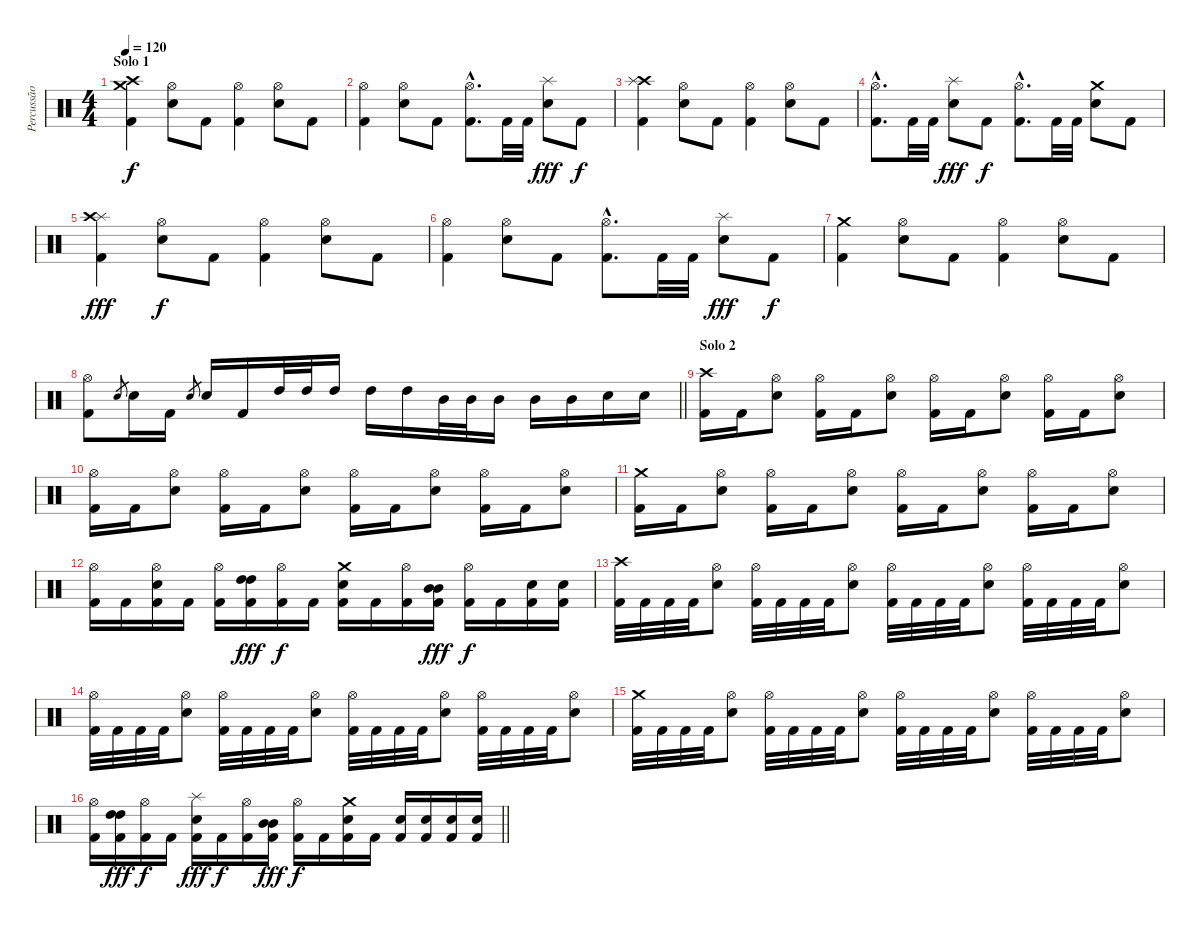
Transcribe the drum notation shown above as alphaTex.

\track ("Percussão" "Percussão") {instrument percussion}
\staff {score}
\articulation defaults
\ts (4 4)
\section ("" "Solo 1")
\tempo 120
\clef neutral
\ks c
("Crash medium (hit)" "Crash high (hit)" "Kick (hit) 2").4{dy f} ("Hi-Hat (open)" "Electric Snare (hit)").8 "Kick (hit) 2".8 ("Hi-Hat (open)" "Kick (hit) 2").4 ("Hi-Hat (open)" "Electric Snare (hit)").8 "Kick (hit) 2".8 |
("Hi-Hat (open)" "Kick (hit) 2").4 ("Hi-Hat (open)" "Electric Snare (hit)").8 "Kick (hit) 2".8 ("Hi-Hat (open)"{hac} "Kick (hit) 2"{hac}).8{d} "Kick (hit) 2".32 "Kick (hit) 2".32 ("Splash (hit)" "Electric Snare (hit)").8{dy fff} "Kick (hit) 2".8{dy f} |
("Crash high (hit)" "Splash (hit)" "Kick (hit) 2").4 ("Hi-Hat (open)" "Electric Snare (hit)").8 "Kick (hit) 2".8 ("Hi-Hat (open)" "Kick (hit) 2").4 ("Hi-Hat (open)" "Electric Snare (hit)").8 "Kick (hit) 2".8 |
("Hi-Hat (open)"{hac} "Kick (hit) 2"{hac}).8{d} "Kick (hit) 2".32 "Kick (hit) 2".32 ("Splash (hit)" "Electric Snare (hit)").8{dy fff} "Kick (hit) 2".8{dy f} ("Hi-Hat (open)"{hac} "Kick (hit) 2"{hac}).8{d} "Kick (hit) 2".32 "Kick (hit) 2".32 ("Crash medium (hit)" "Electric Snare (hit)").8 "Kick (hit) 2".8 |
("Splash (hit)" "Crash high (hit)" "Kick (hit) 2").4{dy fff} ("Hi-Hat (open)" "Electric Snare (hit)").8{dy f} "Kick (hit) 2".8 ("Hi-Hat (open)" "Kick (hit) 2").4 ("Hi-Hat (open)" "Electric Snare (hit)").8 "Kick (hit) 2".8 |
("Hi-Hat (open)" "Kick (hit) 2").4 ("Hi-Hat (open)" "Electric Snare (hit)").8 "Kick (hit) 2".8 ("Hi-Hat (open)"{hac} "Kick (hit) 2"{hac}).8{d} "Kick (hit) 2".32 "Kick (hit) 2".32 ("Splash (hit)" "Electric Snare (hit)").8{dy fff} "Kick (hit) 2".8{dy f} |
("Crash medium (hit)" "Kick (hit) 2").4 ("Hi-Hat (open)" "Electric Snare (hit)").8 "Kick (hit) 2".8 ("Hi-Hat (open)" "Kick (hit) 2").4 ("Hi-Hat (open)" "Electric Snare (hit)").8 "Kick (hit) 2".8 |
\barLineRight lightlight
("Hi-Hat (open)" "Kick (hit) 2").8 "Electric Snare (hit)".8{gr} "Electric Snare (hit)".16 "Kick (hit) 2".16 "Electric Snare (hit)".8{gr} "Electric Snare (hit)".16 "Kick (hit) 2".16 "High Tom (hit)".32 "High Tom (hit)".32 "High Tom (hit)".16 "High Tom (hit)".16 "High Tom (hit)".16 "Mid Tom (hit)".32 "Mid Tom (hit)".32 "Mid Tom (hit)".16 "Mid Tom (hit)".16 "Mid Tom (hit)".16 "Electric Snare (hit)".16 "Electric Snare (hit)".16 |
\section ("" "Solo 2")
("Crash high (hit)" "Kick (hit) 2").16 "Kick (hit) 2".16 ("Hi-Hat (open)" "Electric Snare (hit)").8 ("Hi-Hat (open)" "Kick (hit) 2").16 "Kick (hit) 2".16 ("Hi-Hat (open)" "Electric Snare (hit)").8 ("Hi-Hat (open)" "Kick (hit) 2").16 "Kick (hit) 2".16 ("Hi-Hat (open)" "Electric Snare (hit)").8 ("Hi-Hat (open)" "Kick (hit) 2").16 "Kick (hit) 2".16 ("Hi-Hat (open)" "Electric Snare (hit)").8 |
("Hi-Hat (open)" "Kick (hit) 2").16 "Kick (hit) 2".16 ("Hi-Hat (open)" "Electric Snare (hit)").8 ("Hi-Hat (open)" "Kick (hit) 2").16 "Kick (hit) 2".16 ("Hi-Hat (open)" "Electric Snare (hit)").8 ("Hi-Hat (open)" "Kick (hit) 2").16 "Kick (hit) 2".16 ("Hi-Hat (open)" "Electric Snare (hit)").8 ("Hi-Hat (open)" "Kick (hit) 2").16 "Kick (hit) 2".16 ("Hi-Hat (open)" "Electric Snare (hit)").8 |
("Crash medium (hit)" "Kick (hit) 2").16 "Kick (hit) 2".16 ("Hi-Hat (open)" "Electric Snare (hit)").8 ("Hi-Hat (open)" "Kick (hit) 2").16 "Kick (hit) 2".16 ("Hi-Hat (open)" "Electric Snare (hit)").8 ("Hi-Hat (open)" "Kick (hit) 2").16 "Kick (hit) 2".16 ("Hi-Hat (open)" "Electric Snare (hit)").8 ("Hi-Hat (open)" "Kick (hit) 2").16 "Kick (hit) 2".16 ("Hi-Hat (open)" "Electric Snare (hit)").8 |
("Hi-Hat (open)" "Kick (hit) 2").16 "Kick (hit) 2".16 ("Hi-Hat (open)" "Electric Snare (hit)" "Kick (hit) 2").16 "Kick (hit) 2".16 ("Hi-Hat (open)" "Kick (hit) 2").16 ("High Tom (hit)" "High Tom (hit)" "Kick (hit) 2").16{dy fff} ("Hi-Hat (open)" "Kick (hit) 2").16{dy f} "Kick (hit) 2".16 ("Crash medium (hit)" "Electric Snare (hit)" "Kick (hit) 2").16 "Kick (hit) 2".16 ("Hi-Hat (open)" "Kick (hit) 2").16 ("Mid Tom (hit)" "Mid Tom (hit)" "Kick (hit) 2").16{dy fff} ("Hi-Hat (open)" "Kick (hit) 2").16{dy f} "Kick (hit) 2".16 ("Electric Snare (hit)" "Kick (hit) 2").16 ("Electric Snare (hit)" "Kick (hit) 2").16 |
("Crash high (hit)" "Kick (hit) 2").32 "Kick (hit) 2".32 "Kick (hit) 2".32 "Kick (hit) 2".32 ("Hi-Hat (open)" "Electric Snare (hit)").8 ("Hi-Hat (open)" "Kick (hit) 2").32 "Kick (hit) 2".32 "Kick (hit) 2".32 "Kick (hit) 2".32 ("Hi-Hat (open)" "Electric Snare (hit)").8 ("Hi-Hat (open)" "Kick (hit) 2").32 "Kick (hit) 2".32 "Kick (hit) 2".32 "Kick (hit) 2".32 ("Hi-Hat (open)" "Electric Snare (hit)").8 ("Hi-Hat (open)" "Kick (hit) 2").32 "Kick (hit) 2".32 "Kick (hit) 2".32 "Kick (hit) 2".32 ("Hi-Hat (open)" "Electric Snare (hit)").8 |
("Hi-Hat (open)" "Kick (hit) 2").32 "Kick (hit) 2".32 "Kick (hit) 2".32 "Kick (hit) 2".32 ("Hi-Hat (open)" "Electric Snare (hit)").8 ("Hi-Hat (open)" "Kick (hit) 2").32 "Kick (hit) 2".32 "Kick (hit) 2".32 "Kick (hit) 2".32 ("Hi-Hat (open)" "Electric Snare (hit)").8 ("Hi-Hat (open)" "Kick (hit) 2").32 "Kick (hit) 2".32 "Kick (hit) 2".32 "Kick (hit) 2".32 ("Hi-Hat (open)" "Electric Snare (hit)").8 ("Hi-Hat (open)" "Kick (hit) 2").32 "Kick (hit) 2".32 "Kick (hit) 2".32 "Kick (hit) 2".32 ("Hi-Hat (open)" "Electric Snare (hit)").8 |
("Crash medium (hit)" "Kick (hit) 2").32 "Kick (hit) 2".32 "Kick (hit) 2".32 "Kick (hit) 2".32 ("Hi-Hat (open)" "Electric Snare (hit)").8 ("Hi-Hat (open)" "Kick (hit) 2").32 "Kick (hit) 2".32 "Kick (hit) 2".32 "Kick (hit) 2".32 ("Hi-Hat (open)" "Electric Snare (hit)").8 ("Hi-Hat (open)" "Kick (hit) 2").32 "Kick (hit) 2".32 "Kick (hit) 2".32 "Kick (hit) 2".32 ("Hi-Hat (open)" "Electric Snare (hit)").8 ("Hi-Hat (open)" "Kick (hit) 2").32 "Kick (hit) 2".32 "Kick (hit) 2".32 "Kick (hit) 2".32 ("Hi-Hat (open)" "Electric Snare (hit)").8 |
\barLineRight lightlight
("Hi-Hat (open)" "Kick (hit) 2").16 ("High Tom (hit)" "High Tom (hit)" "Kick (hit) 2").16{dy fff} ("Hi-Hat (open)" "Kick (hit) 2").16{dy f} "Kick (hit) 2".16 ("Splash (hit)" "Electric Snare (hit)" "Kick (hit) 2").16{dy fff} "Kick (hit) 2".16{dy f} ("Hi-Hat (open)" "Kick (hit) 2").16 ("Mid Tom (hit)" "Mid Tom (hit)" "Kick (hit) 2").16{dy fff} ("Hi-Hat (open)" "Kick (hit) 2").16{dy f} "Kick (hit) 2".16 ("Crash medium (hit)" "Electric Snare (hit)" "Kick (hit) 2").16 "Kick (hit) 2".16 ("Electric Snare (hit)" "Kick (hit) 2").16 ("Electric Snare (hit)" "Kick (hit) 2").16 ("Electric Snare (hit)" "Kick (hit) 2").16 ("Electric Snare (hit)" "Kick (hit) 2").16
